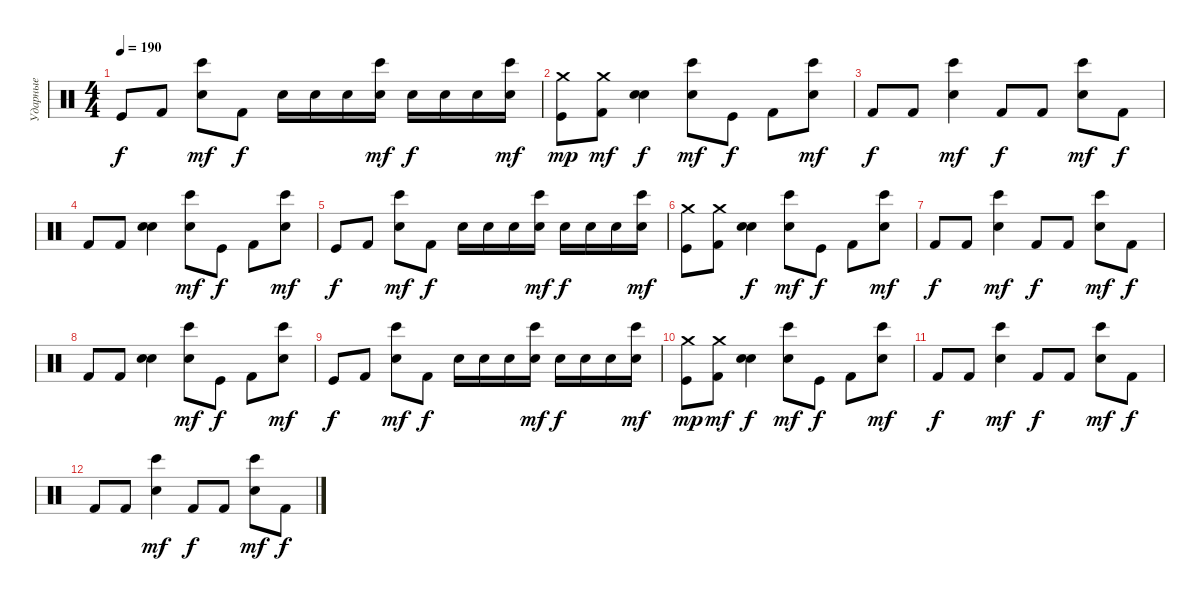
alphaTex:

\track ("Ударные" "Ударные") {instrument percussion}
\staff {score}
\articulation defaults
\ts (4 4)
\tempo 190
\clef neutral
\ks c "Kick (hit)".8{dy f} "Kick (hit) 2".8
("Electric Snare (hit)" "Bongo High (hit)").8{dy mf} "Kick (hit) 2".8{dy f} "Electric Snare (hit)".16 "Electric Snare (hit)".16 "Electric Snare (hit)".16 ("Electric Snare (hit)" "Bongo High (hit)").16{dy mf} "Electric Snare (hit)".16{dy f} "Electric Snare (hit)".16 "Electric Snare (hit)".16 ("Electric Snare (hit)" "Bongo High (hit)").16{dy mf} |
("Crash medium (hit)" "Kick (hit)").8{dy mp} ("Crash medium (hit)" "Kick (hit) 2").8{dy mf} ("Electric Snare (hit)" "Snare (hit) 2").4{dy f} ("Electric Snare (hit)" "Bongo High (hit)").8{dy mf} "Kick (hit)".8{dy f} "Kick (hit) 2".8 ("Electric Snare (hit)" "Bongo High (hit)").8{dy mf} |
"Kick (hit) 2".8{dy f} "Kick (hit) 2".8 ("Electric Snare (hit)" "Bongo High (hit)").4{dy mf} "Kick (hit) 2".8{dy f} "Kick (hit) 2".8 ("Electric Snare (hit)" "Bongo High (hit)").8{dy mf} "Kick (hit) 2".8{dy f} |
"Kick (hit) 2".8 "Kick (hit) 2".8 ("Electric Snare (hit)" "Snare (hit) 2").4 ("Electric Snare (hit)" "Bongo High (hit)").8{dy mf} "Kick (hit)".8{dy f} "Kick (hit) 2".8 ("Electric Snare (hit)" "Bongo High (hit)").8{dy mf} |
"Kick (hit)".8{dy f} "Kick (hit) 2".8 ("Electric Snare (hit)" "Bongo High (hit)").8{dy mf} "Kick (hit) 2".8{dy f} "Electric Snare (hit)".16 "Electric Snare (hit)".16 "Electric Snare (hit)".16 ("Electric Snare (hit)" "Bongo High (hit)").16{dy mf} "Electric Snare (hit)".16{dy f} "Electric Snare (hit)".16 "Electric Snare (hit)".16 ("Electric Snare (hit)" "Bongo High (hit)").16{dy mf} |
("Crash medium (hit)" "Kick (hit)").8 ("Crash medium (hit)" "Kick (hit) 2").8 ("Electric Snare (hit)" "Snare (hit) 2").4{dy f} ("Electric Snare (hit)" "Bongo High (hit)").8{dy mf} "Kick (hit)".8{dy f} "Kick (hit) 2".8 ("Electric Snare (hit)" "Bongo High (hit)").8{dy mf} |
"Kick (hit) 2".8{dy f} "Kick (hit) 2".8 ("Electric Snare (hit)" "Bongo High (hit)").4{dy mf} "Kick (hit) 2".8{dy f} "Kick (hit) 2".8 ("Electric Snare (hit)" "Bongo High (hit)").8{dy mf} "Kick (hit) 2".8{dy f} |
"Kick (hit) 2".8 "Kick (hit) 2".8 ("Electric Snare (hit)" "Snare (hit) 2").4 ("Electric Snare (hit)" "Bongo High (hit)").8{dy mf} "Kick (hit)".8{dy f} "Kick (hit) 2".8 ("Electric Snare (hit)" "Bongo High (hit)").8{dy mf} |
"Kick (hit)".8{dy f} "Kick (hit) 2".8 ("Electric Snare (hit)" "Bongo High (hit)").8{dy mf} "Kick (hit) 2".8{dy f} "Electric Snare (hit)".16 "Electric Snare (hit)".16 "Electric Snare (hit)".16 ("Electric Snare (hit)" "Bongo High (hit)").16{dy mf} "Electric Snare (hit)".16{dy f} "Electric Snare (hit)".16 "Electric Snare (hit)".16 ("Electric Snare (hit)" "Bongo High (hit)").16{dy mf} |
("Crash medium (hit)" "Kick (hit)").8{dy mp} ("Crash medium (hit)" "Kick (hit) 2").8{dy mf} ("Electric Snare (hit)" "Snare (hit) 2").4{dy f} ("Electric Snare (hit)" "Bongo High (hit)").8{dy mf} "Kick (hit)".8{dy f} "Kick (hit) 2".8 ("Electric Snare (hit)" "Bongo High (hit)").8{dy mf} |
"Kick (hit) 2".8{dy f} "Kick (hit) 2".8 ("Electric Snare (hit)" "Bongo High (hit)").4{dy mf} "Kick (hit) 2".8{dy f} "Kick (hit) 2".8 ("Electric Snare (hit)" "Bongo High (hit)").8{dy mf} "Kick (hit) 2".8{dy f} |
"Kick (hit) 2".8 "Kick (hit) 2".8 ("Electric Snare (hit)" "Bongo High (hit)").4{dy mf} "Kick (hit) 2".8{dy f} "Kick (hit) 2".8 ("Electric Snare (hit)" "Bongo High (hit)").8{dy mf} "Kick (hit) 2".8{dy f}
